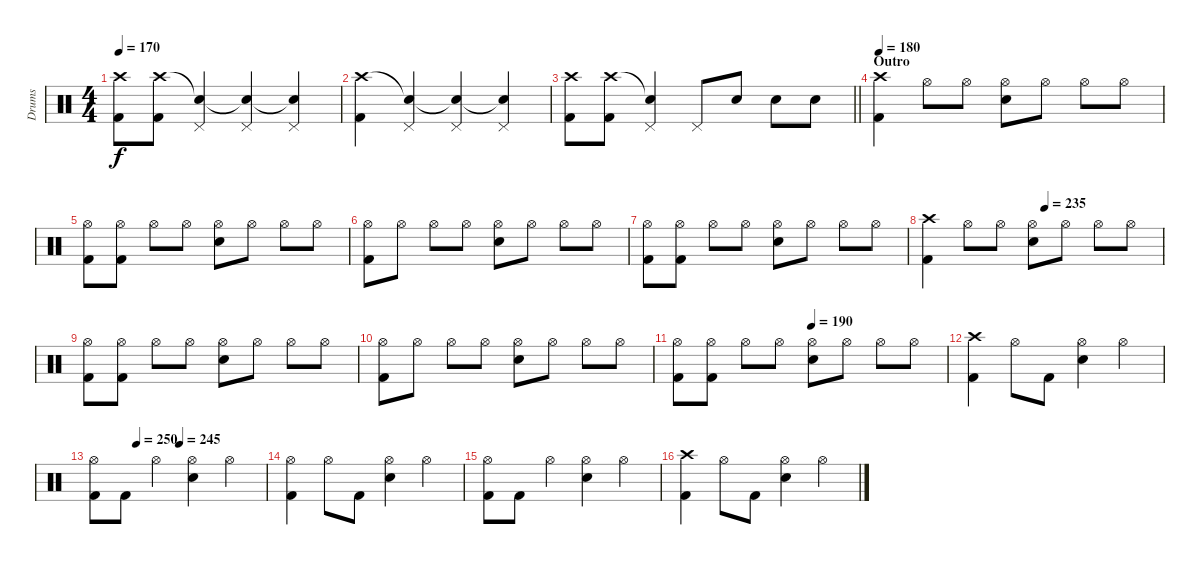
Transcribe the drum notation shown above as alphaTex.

\track ("Drums" "Drums") {instrument percussion}
\staff {score}
\articulation defaults
\ts (4 4)
\tempo 170
\clef neutral
\ks c
("Kick (hit) 2" "Crash high (hit)").8{dy f} ("Kick (hit) 2" "Crash high (hit)").8 ("Pedal Hi-Hat (hit)" "Snare (hit)"{t}).4 ("Pedal Hi-Hat (hit)" "Snare (hit)"{t}).4 ("Pedal Hi-Hat (hit)" "Snare (hit)"{t}).4 |
("Kick (hit) 2" "Crash high (hit)").4 ("Pedal Hi-Hat (hit)" "Snare (hit)"{t}).4 ("Pedal Hi-Hat (hit)" "Snare (hit)"{t}).4 ("Pedal Hi-Hat (hit)" "Snare (hit)"{t}).4 |
\barLineRight lightlight
("Kick (hit) 2" "Crash high (hit)").8 ("Kick (hit) 2" "Crash high (hit)").8 ("Pedal Hi-Hat (hit)" "Snare (hit)"{t}).4 "Pedal Hi-Hat (hit)".8 "Electric Snare (hit)".8 "Electric Snare (hit)".8 "Electric Snare (hit)".8 |
\section ("" "Outro")
\tempo 180
("Kick (hit) 2" "Crash high (hit)").4 "Hi-Hat (open)".8 "Hi-Hat (open)".8 ("Electric Snare (hit)" "Hi-Hat (open)").8 "Hi-Hat (open)".8 "Hi-Hat (open)".8 "Hi-Hat (open)".8 |
("Kick (hit) 2" "Hi-Hat (open)").8 ("Kick (hit) 2" "Hi-Hat (open)").8 "Hi-Hat (open)".8 "Hi-Hat (open)".8 ("Electric Snare (hit)" "Hi-Hat (open)").8 "Hi-Hat (open)".8 "Hi-Hat (open)".8 "Hi-Hat (open)".8 |
("Kick (hit) 2" "Hi-Hat (open)").8 "Hi-Hat (open)".8 "Hi-Hat (open)".8 "Hi-Hat (open)".8 ("Electric Snare (hit)" "Hi-Hat (open)").8 "Hi-Hat (open)".8 "Hi-Hat (open)".8 "Hi-Hat (open)".8 |
("Kick (hit) 2" "Hi-Hat (open)").8 ("Kick (hit) 2" "Hi-Hat (open)").8 "Hi-Hat (open)".8 "Hi-Hat (open)".8 ("Electric Snare (hit)" "Hi-Hat (open)").8 "Hi-Hat (open)".8 "Hi-Hat (open)".8 "Hi-Hat (open)".8 |
\tempo (235 0.5)
("Kick (hit) 2" "Crash high (hit)").4 "Hi-Hat (open)".8 "Hi-Hat (open)".8 ("Electric Snare (hit)" "Hi-Hat (open)").8 "Hi-Hat (open)".8 "Hi-Hat (open)".8 "Hi-Hat (open)".8 |
("Kick (hit) 2" "Hi-Hat (open)").8 ("Kick (hit) 2" "Hi-Hat (open)").8 "Hi-Hat (open)".8 "Hi-Hat (open)".8 ("Electric Snare (hit)" "Hi-Hat (open)").8 "Hi-Hat (open)".8 "Hi-Hat (open)".8 "Hi-Hat (open)".8 |
("Kick (hit) 2" "Hi-Hat (open)").8 "Hi-Hat (open)".8 "Hi-Hat (open)".8 "Hi-Hat (open)".8 ("Electric Snare (hit)" "Hi-Hat (open)").8 "Hi-Hat (open)".8 "Hi-Hat (open)".8 "Hi-Hat (open)".8 |
\tempo (190 0.5)
("Kick (hit) 2" "Hi-Hat (open)").8 ("Kick (hit) 2" "Hi-Hat (open)").8 "Hi-Hat (open)".8 "Hi-Hat (open)".8 ("Electric Snare (hit)" "Hi-Hat (open)").8 "Hi-Hat (open)".8 "Hi-Hat (open)".8 "Hi-Hat (open)".8 |
("Kick (hit) 2" "Crash high (hit)").4 "Hi-Hat (open)".8 "Kick (hit) 2".8 ("Electric Snare (hit)" "Hi-Hat (open)").4 "Hi-Hat (open)".4 |
\tempo (250 0.25)
\tempo (245 0.5)
("Kick (hit) 2" "Hi-Hat (open)").8 "Kick (hit) 2".8 "Hi-Hat (open)".4 ("Electric Snare (hit)" "Hi-Hat (open)").4 "Hi-Hat (open)".4 |
("Kick (hit) 2" "Hi-Hat (open)").4 "Hi-Hat (open)".8 "Kick (hit) 2".8 ("Electric Snare (hit)" "Hi-Hat (open)").4 "Hi-Hat (open)".4 |
("Kick (hit) 2" "Hi-Hat (open)").8 "Kick (hit) 2".8 "Hi-Hat (open)".4 ("Electric Snare (hit)" "Hi-Hat (open)").4 "Hi-Hat (open)".4 |
("Kick (hit) 2" "Crash high (hit)").4 "Hi-Hat (open)".8 "Kick (hit) 2".8 ("Electric Snare (hit)" "Hi-Hat (open)").4 "Hi-Hat (open)".4
